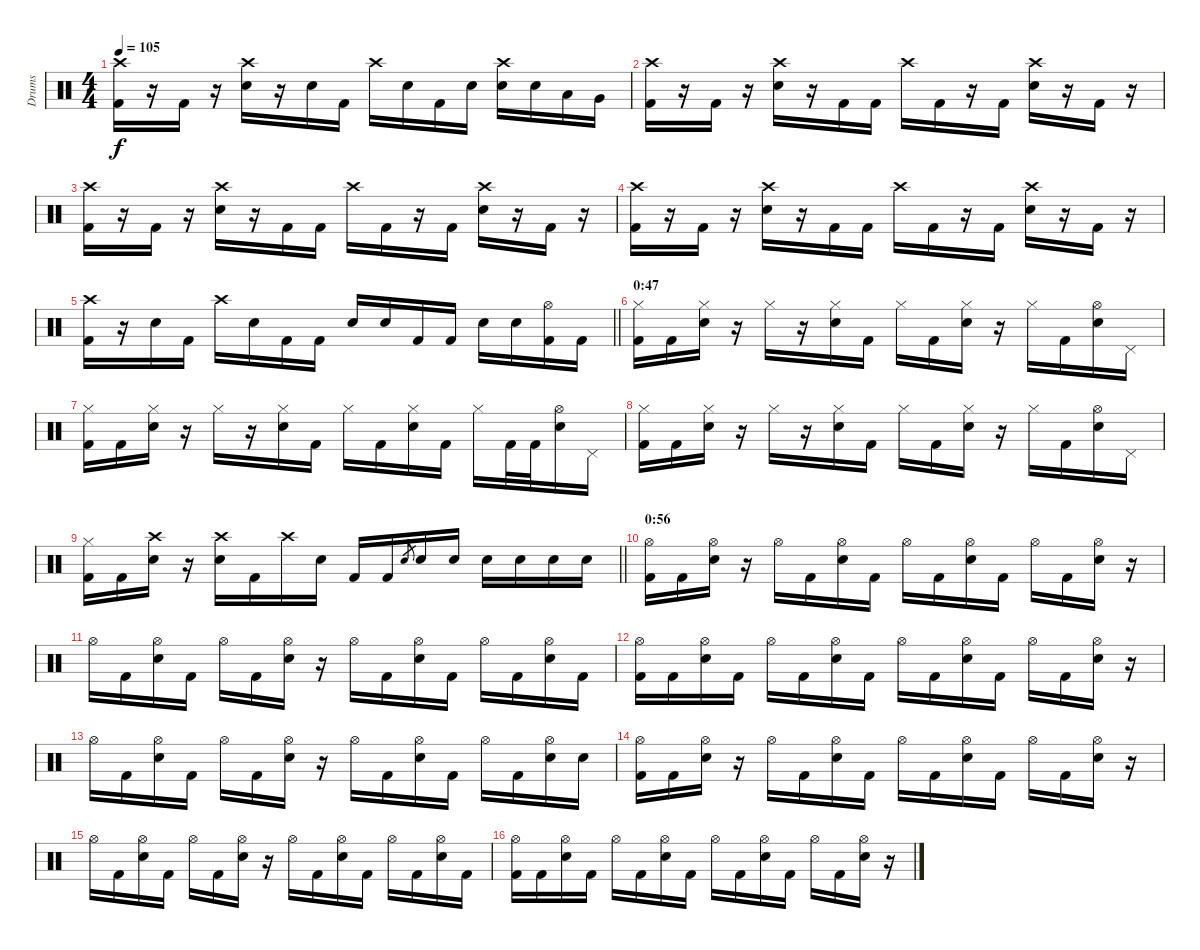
\track ("Drums" "Drums") {instrument percussion}
\staff {score}
\articulation defaults
\ts (4 4)
\tempo 105
\clef neutral
\ks c
("Crash high (hit)" "Kick (hit) 2").16{dy f} r.16 "Kick (hit) 2".16 r.16 ("Crash high (hit)" "Electric Snare (hit)").16 r.16 "Electric Snare (hit)".16 "Kick (hit) 2".16 "Crash high (hit)".16 "Electric Snare (hit)".16 "Kick (hit) 2".16 "Electric Snare (hit)".16 ("Crash high (hit)" "Electric Snare (hit)").16 "Electric Snare (hit)".16 "Low Tom (hit)".16 "Very Low Tom (hit)".16 |
("Crash high (hit)" "Kick (hit) 2").16 r.16 "Kick (hit) 2".16 r.16 ("Crash high (hit)" "Electric Snare (hit)").16 r.16 "Kick (hit) 2".16 "Kick (hit) 2".16 "Crash high (hit)".16 "Kick (hit) 2".16 r.16 "Kick (hit) 2".16 ("Crash high (hit)" "Electric Snare (hit)").16 r.16 "Kick (hit) 2".16 r.16 |
("Crash high (hit)" "Kick (hit) 2").16 r.16 "Kick (hit) 2".16 r.16 ("Crash high (hit)" "Electric Snare (hit)").16 r.16 "Kick (hit) 2".16 "Kick (hit) 2".16 "Crash high (hit)".16 "Kick (hit) 2".16 r.16 "Kick (hit) 2".16 ("Crash high (hit)" "Electric Snare (hit)").16 r.16 "Kick (hit) 2".16 r.16 |
("Crash high (hit)" "Kick (hit) 2").16 r.16 "Kick (hit) 2".16 r.16 ("Crash high (hit)" "Electric Snare (hit)").16 r.16 "Kick (hit) 2".16 "Kick (hit) 2".16 "Crash high (hit)".16 "Kick (hit) 2".16 r.16 "Kick (hit) 2".16 ("Crash high (hit)" "Electric Snare (hit)").16 r.16 "Kick (hit) 2".16 r.16 |
\barLineRight lightlight
("Crash high (hit)" "Kick (hit) 2").16 r.16 "Electric Snare (hit)".16 "Kick (hit) 2".16 "Crash high (hit)".16 "Electric Snare (hit)".16 "Kick (hit) 2".16 "Kick (hit) 2".16 "Electric Snare (hit)".16 "Electric Snare (hit)".16 "Kick (hit) 2".16 "Kick (hit) 2".16 "Electric Snare (hit)".16 "Electric Snare (hit)".16 ("Hi-Hat (open)" "Kick (hit) 2").16 "Kick (hit) 2".16 |
\section ("" "0:47")
("Hi-Hat (closed)" "Kick (hit) 2").16 "Kick (hit) 2".16 ("Hi-Hat (closed)" "Electric Snare (hit)").16 r.16 "Hi-Hat (closed)".16 r.16 ("Hi-Hat (closed)" "Electric Snare (hit)").16 "Kick (hit) 2".16 "Hi-Hat (closed)".16 "Kick (hit) 2".16 ("Hi-Hat (closed)" "Electric Snare (hit)").16 r.16 "Hi-Hat (closed)".16 "Kick (hit) 2".16 ("Hi-Hat (open)" "Electric Snare (hit)").16 "Pedal Hi-Hat (hit)".16 |
("Hi-Hat (closed)" "Kick (hit) 2").16 "Kick (hit) 2".16 ("Hi-Hat (closed)" "Electric Snare (hit)").16 r.16 "Hi-Hat (closed)".16 r.16 ("Hi-Hat (closed)" "Electric Snare (hit)").16 "Kick (hit) 2".16 "Hi-Hat (closed)".16 "Kick (hit) 2".16 ("Hi-Hat (closed)" "Electric Snare (hit)").16 "Kick (hit) 2".16 "Hi-Hat (closed)".16 "Kick (hit) 2".32 "Kick (hit) 2".32 ("Hi-Hat (open)" "Electric Snare (hit)").16 "Pedal Hi-Hat (hit)".16 |
("Hi-Hat (closed)" "Kick (hit) 2").16 "Kick (hit) 2".16 ("Hi-Hat (closed)" "Electric Snare (hit)").16 r.16 "Hi-Hat (closed)".16 r.16 ("Hi-Hat (closed)" "Electric Snare (hit)").16 "Kick (hit) 2".16 "Hi-Hat (closed)".16 "Kick (hit) 2".16 ("Hi-Hat (closed)" "Electric Snare (hit)").16 r.16 "Hi-Hat (closed)".16 "Kick (hit) 2".16 ("Hi-Hat (open)" "Electric Snare (hit)").16 "Pedal Hi-Hat (hit)".16 |
\barLineRight lightlight
("Hi-Hat (closed)" "Kick (hit) 2").16 "Kick (hit) 2".16 ("Crash high (hit)" "Electric Snare (hit)").16 r.16 ("Crash high (hit)" "Electric Snare (hit)").16 "Kick (hit) 2".16 "Crash high (hit)".16 "Electric Snare (hit)".16 "Kick (hit) 2".16 "Kick (hit) 2".16 "Electric Snare (hit)".8{gr} "Electric Snare (hit)".16 "Electric Snare (hit)".16 "Electric Snare (hit)".16 "Electric Snare (hit)".16 "Electric Snare (hit)".16 "Electric Snare (hit)".16 |
\section ("" "0:56")
("Hi-Hat (open)" "Kick (hit) 2").16 "Kick (hit) 2".16 ("Hi-Hat (open)" "Electric Snare (hit)").16 r.16 "Hi-Hat (open)".16 "Kick (hit) 2".16 ("Hi-Hat (open)" "Electric Snare (hit)").16 "Kick (hit) 2".16 "Hi-Hat (open)".16 "Kick (hit) 2".16 ("Hi-Hat (open)" "Electric Snare (hit)").16 "Kick (hit) 2".16 "Hi-Hat (open)".16 "Kick (hit) 2".16 ("Hi-Hat (open)" "Electric Snare (hit)").16 r.16 |
"Hi-Hat (open)".16 "Kick (hit) 2".16 ("Hi-Hat (open)" "Electric Snare (hit)").16 "Kick (hit) 2".16 "Hi-Hat (open)".16 "Kick (hit) 2".16 ("Hi-Hat (open)" "Electric Snare (hit)").16 r.16 "Hi-Hat (open)".16 "Kick (hit) 2".16 ("Hi-Hat (open)" "Electric Snare (hit)").16 "Kick (hit) 2".16 "Hi-Hat (open)".16 "Kick (hit) 2".16 ("Hi-Hat (open)" "Electric Snare (hit)").16 "Kick (hit) 2".16 |
("Hi-Hat (open)" "Kick (hit) 2").16 "Kick (hit) 2".16 ("Hi-Hat (open)" "Electric Snare (hit)").16 "Kick (hit) 2".16 "Hi-Hat (open)".16 "Kick (hit) 2".16 ("Hi-Hat (open)" "Electric Snare (hit)").16 "Kick (hit) 2".16 "Hi-Hat (open)".16 "Kick (hit) 2".16 ("Hi-Hat (open)" "Electric Snare (hit)").16 "Kick (hit) 2".16 "Hi-Hat (open)".16 "Kick (hit) 2".16 ("Hi-Hat (open)" "Electric Snare (hit)").16 r.16 |
"Hi-Hat (open)".16 "Kick (hit) 2".16 ("Hi-Hat (open)" "Electric Snare (hit)").16 "Kick (hit) 2".16 "Hi-Hat (open)".16 "Kick (hit) 2".16 ("Hi-Hat (open)" "Electric Snare (hit)").16 r.16 "Hi-Hat (open)".16 "Kick (hit) 2".16 ("Hi-Hat (open)" "Electric Snare (hit)").16 "Kick (hit) 2".16 "Hi-Hat (open)".16 "Kick (hit) 2".16 ("Hi-Hat (open)" "Electric Snare (hit)").16 "Electric Snare (hit)".16 |
("Hi-Hat (open)" "Kick (hit) 2").16 "Kick (hit) 2".16 ("Hi-Hat (open)" "Electric Snare (hit)").16 r.16 "Hi-Hat (open)".16 "Kick (hit) 2".16 ("Hi-Hat (open)" "Electric Snare (hit)").16 "Kick (hit) 2".16 "Hi-Hat (open)".16 "Kick (hit) 2".16 ("Hi-Hat (open)" "Electric Snare (hit)").16 "Kick (hit) 2".16 "Hi-Hat (open)".16 "Kick (hit) 2".16 ("Hi-Hat (open)" "Electric Snare (hit)").16 r.16 |
"Hi-Hat (open)".16 "Kick (hit) 2".16 ("Hi-Hat (open)" "Electric Snare (hit)").16 "Kick (hit) 2".16 "Hi-Hat (open)".16 "Kick (hit) 2".16 ("Hi-Hat (open)" "Electric Snare (hit)").16 r.16 "Hi-Hat (open)".16 "Kick (hit) 2".16 ("Hi-Hat (open)" "Electric Snare (hit)").16 "Kick (hit) 2".16 "Hi-Hat (open)".16 "Kick (hit) 2".16 ("Hi-Hat (open)" "Electric Snare (hit)").16 "Kick (hit) 2".16 |
("Hi-Hat (open)" "Kick (hit) 2").16 "Kick (hit) 2".16 ("Hi-Hat (open)" "Electric Snare (hit)").16 "Kick (hit) 2".16 "Hi-Hat (open)".16 "Kick (hit) 2".16 ("Hi-Hat (open)" "Electric Snare (hit)").16 "Kick (hit) 2".16 "Hi-Hat (open)".16 "Kick (hit) 2".16 ("Hi-Hat (open)" "Electric Snare (hit)").16 "Kick (hit) 2".16 "Hi-Hat (open)".16 "Kick (hit) 2".16 ("Hi-Hat (open)" "Electric Snare (hit)").16 r.16
